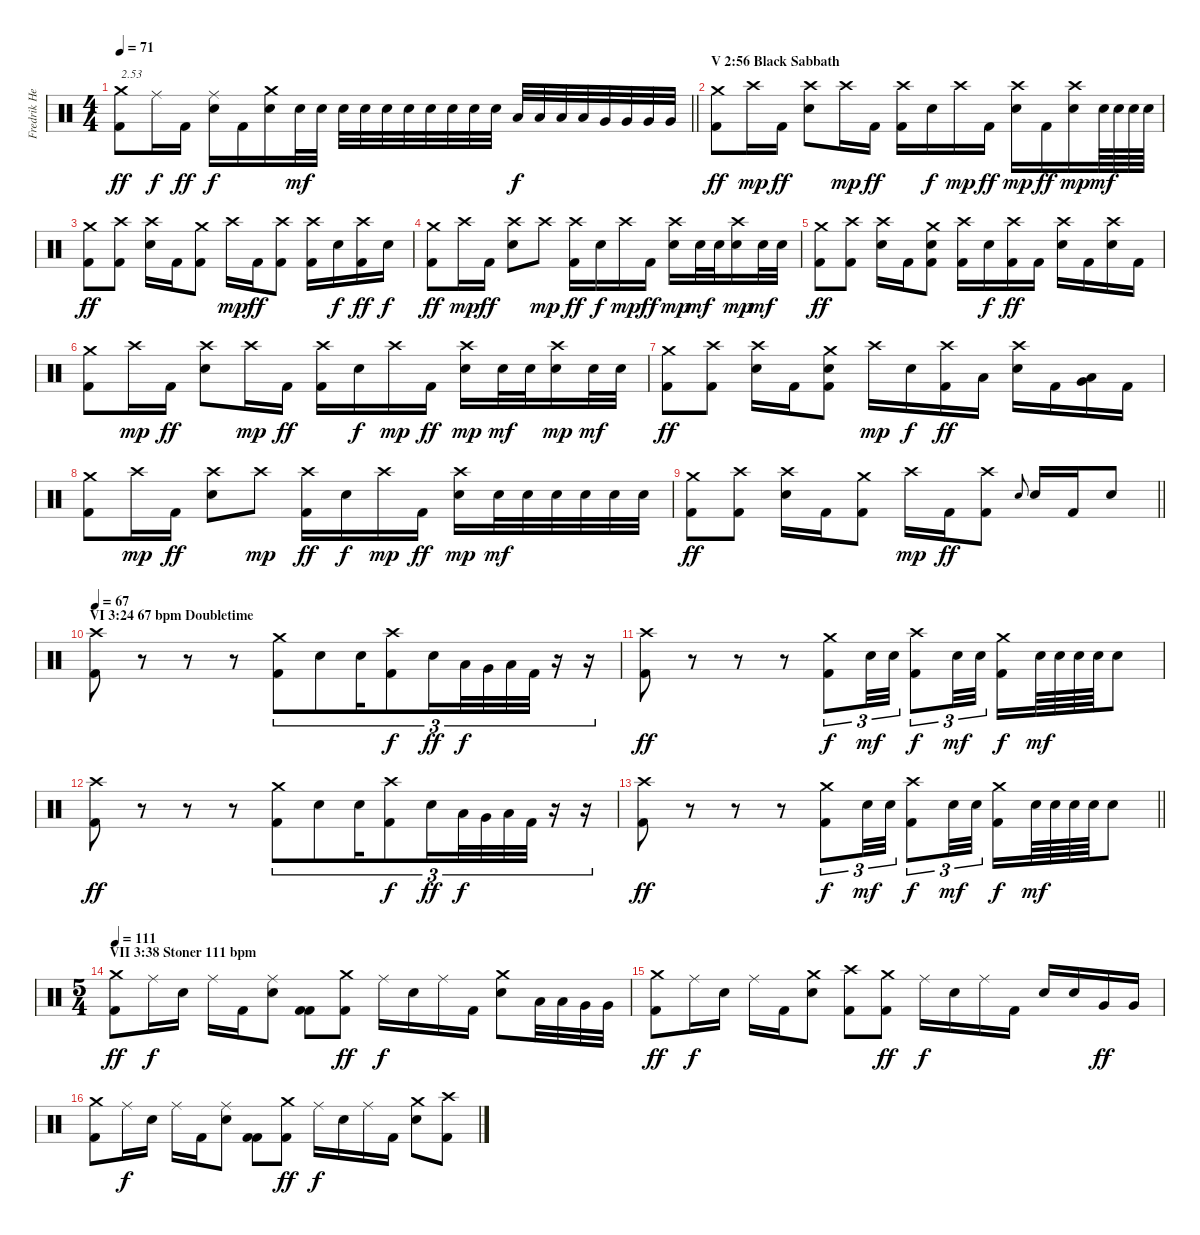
\track ("Fredrik Hellerström (Drums)" "Fredrik He") {instrument percussion}
\staff
\articulation defaults
\ts (4 4)
\tempo 71
\clef neutral
\barLineRight lightlight
\ks c
("Crash medium (hit)" "Kick (hit) 2").8{txt "2.53" dy ff} "Ride (middle)".16{dy f} "Kick (hit) 2".16{dy ff} ("Ride (middle)" "Electric Snare (hit)").16{dy f} "Kick (hit) 2".16 ("Crash medium (hit)" "Electric Snare (hit)").16 "Electric Snare (hit)".32{dy mf} "Electric Snare (hit)".32 "Electric Snare (hit)".32 "Electric Snare (hit)".32 "Electric Snare (hit)".32 "Electric Snare (hit)".32 "Electric Snare (hit)".32 "Electric Snare (hit)".32 "Electric Snare (hit)".32 "Electric Snare (hit)".32 "Low Tom (hit)".32{dy f} "Low Tom (hit)".32 "Low Tom (hit)".32 "Low Tom (hit)".32 "Very Low Tom (hit)".32 "Very Low Tom (hit)".32 "Very Low Tom (hit)".32 "Very Low Tom (hit)".32 |
\section ("" "V 2:56 Black Sabbath")
("Crash medium (hit)" "Kick (hit) 2").8{dy ff} "Crash high (hit)".16{dy mp} "Kick (hit) 2".16{dy ff} ("Crash high (hit)" "Electric Snare (hit)").8 "Crash high (hit)".16{dy mp} "Kick (hit) 2".16{dy ff} ("Crash high (hit)" "Kick (hit) 2").16 "Electric Snare (hit)".16{dy f} "Crash high (hit)".16{dy mp} "Kick (hit) 2".16{dy ff} ("Crash high (hit)" "Electric Snare (hit)").16{dy mp} "Kick (hit) 2".16{dy ff} ("Crash high (hit)" "Electric Snare (hit)").16{dy mp} "Electric Snare (hit)".64{dy mf} "Electric Snare (hit)".64 "Electric Snare (hit)".64 "Electric Snare (hit)".64 |
("Crash medium (hit)" "Kick (hit) 2").8{dy ff} ("Crash high (hit)" "Kick (hit) 2").8 ("Crash high (hit)" "Electric Snare (hit)").16 "Kick (hit) 2".16 ("Crash medium (hit)" "Kick (hit) 2").8 "Crash high (hit)".16{dy mp} "Kick (hit) 2".16{dy ff} ("Crash high (hit)" "Kick (hit) 2").8 ("Crash high (hit)" "Kick (hit) 2").16 "Electric Snare (hit)".16{dy f} ("Crash high (hit)" "Kick (hit) 2").16{dy ff} "Electric Snare (hit)".16{dy f} |
("Crash medium (hit)" "Kick (hit) 2").8{dy ff} "Crash high (hit)".16{dy mp} "Kick (hit) 2".16{dy ff} ("Crash high (hit)" "Electric Snare (hit)").8 "Crash high (hit)".8{dy mp} ("Crash high (hit)" "Kick (hit) 2").16{dy ff} "Electric Snare (hit)".16{dy f} "Crash high (hit)".16{dy mp} "Kick (hit) 2".16{dy ff} ("Crash high (hit)" "Electric Snare (hit)").16{dy mp} "Electric Snare (hit)".32{dy mf} "Electric Snare (hit)".32 ("Crash high (hit)" "Electric Snare (hit)").16{dy mp} "Electric Snare (hit)".32{dy mf} "Electric Snare (hit)".32 |
("Crash medium (hit)" "Kick (hit) 2").8{dy ff} ("Crash high (hit)" "Kick (hit) 2").8 ("Crash high (hit)" "Electric Snare (hit)").16 "Kick (hit) 2".16 ("Crash medium (hit)" "Electric Snare (hit)" "Kick (hit) 2").8 ("Crash high (hit)" "Kick (hit) 2").16 "Electric Snare (hit)".16{dy f} ("Crash high (hit)" "Kick (hit) 2").16{dy ff} "Kick (hit) 2".16 ("Crash high (hit)" "Electric Snare (hit)").16 "Kick (hit) 2".16 ("Crash high (hit)" "Electric Snare (hit)").16 "Kick (hit) 2".16 |
("Crash medium (hit)" "Kick (hit) 2").8 "Crash high (hit)".16{dy mp} "Kick (hit) 2".16{dy ff} ("Crash high (hit)" "Electric Snare (hit)").8 "Crash high (hit)".16{dy mp} "Kick (hit) 2".16{dy ff} ("Crash high (hit)" "Kick (hit) 2").16 "Electric Snare (hit)".16{dy f} "Crash high (hit)".16{dy mp} "Kick (hit) 2".16{dy ff} ("Crash high (hit)" "Electric Snare (hit)").16{dy mp} "Electric Snare (hit)".32{dy mf} "Electric Snare (hit)".32 ("Crash high (hit)" "Electric Snare (hit)").16{dy mp} "Electric Snare (hit)".32{dy mf} "Electric Snare (hit)".32 |
("Crash medium (hit)" "Kick (hit) 2").8{dy ff} ("Crash high (hit)" "Kick (hit) 2").8 ("Crash high (hit)" "Electric Snare (hit)").16 "Kick (hit) 2".16 ("Crash medium (hit)" "Electric Snare (hit)" "Kick (hit) 2").8 "Crash high (hit)".16{dy mp} "Electric Snare (hit)".16{dy f} ("Crash high (hit)" "Kick (hit) 2").16{dy ff} "Low Tom (hit)".16 ("Crash high (hit)" "Electric Snare (hit)").16 "Kick (hit) 2".16 ("Low Floor Tom (hit)" "Very Low Tom (hit)").16 "Kick (hit) 2".16 |
("Crash medium (hit)" "Kick (hit) 2").8 "Crash high (hit)".16{dy mp} "Kick (hit) 2".16{dy ff} ("Crash high (hit)" "Electric Snare (hit)").8 "Crash high (hit)".8{dy mp} ("Crash high (hit)" "Kick (hit) 2").16{dy ff} "Electric Snare (hit)".16{dy f} "Crash high (hit)".16{dy mp} "Kick (hit) 2".16{dy ff} ("Crash high (hit)" "Electric Snare (hit)").16{dy mp} "Electric Snare (hit)".32{dy mf} "Electric Snare (hit)".32 "Electric Snare (hit)".32 "Electric Snare (hit)".32 "Electric Snare (hit)".32 "Electric Snare (hit)".32 |
\barLineRight lightlight
("Crash medium (hit)" "Kick (hit) 2").8{dy ff} ("Crash high (hit)" "Kick (hit) 2").8 ("Crash high (hit)" "Electric Snare (hit)").16 "Kick (hit) 2".16 ("Crash medium (hit)" "Kick (hit) 2").8 "Crash high (hit)".16{dy mp} "Kick (hit) 2".16{dy ff} ("Crash high (hit)" "Kick (hit) 2").8 "Electric Snare (hit)".8{gr onbeat} "Electric Snare (hit)".16 "Kick (hit) 2".16 "Electric Snare (hit)".8 |
\section ("" "VI 3:24 67 bpm Doubletime")
\tempo 67
("Crash high (hit)" "Kick (hit) 2").8 r.8 r.8 r.8 ("Crash medium (hit)" "Kick (hit) 2").8{tu (3 2)} "Electric Snare (hit)".8{tu (3 2)} "Electric Snare (hit)".16{tu (3 2)} ("Crash high (hit)" "Kick (hit) 2").8{tu (3 2) dy f} "Electric Snare (hit)".16{tu (3 2) dy ff} "Low Tom (hit)".32{tu (3 2) dy f} "Very Low Tom (hit)".32{tu (3 2)} "Low Floor Tom (hit)".32{tu (3 2)} "Kick (hit) 2".32{tu (3 2)} r.16{tu (3 2)} r.16{tu (3 2)} |
("Crash high (hit)" "Kick (hit) 2").8{dy ff} r.8 r.8 r.8 ("Crash medium (hit)" "Kick (hit) 2").8{tu (3 2) dy f} "Electric Snare (hit)".32{tu (3 2) dy mf} "Electric Snare (hit)".32{tu (3 2)} ("Crash high (hit)" "Kick (hit) 2").8{tu (3 2) dy f} "Electric Snare (hit)".32{tu (3 2) dy mf} "Electric Snare (hit)".32{tu (3 2)} ("Crash medium (hit)" "Kick (hit) 2").16{dy f} "Electric Snare (hit)".64{dy mf} "Electric Snare (hit)".64 "Electric Snare (hit)".64 "Electric Snare (hit)".64 "Electric Snare (hit)".8 |
("Crash high (hit)" "Kick (hit) 2").8{dy ff} r.8 r.8 r.8 ("Crash medium (hit)" "Kick (hit) 2").8{tu (3 2)} "Electric Snare (hit)".8{tu (3 2)} "Electric Snare (hit)".16{tu (3 2)} ("Crash high (hit)" "Kick (hit) 2").8{tu (3 2) dy f} "Electric Snare (hit)".16{tu (3 2) dy ff} "Low Tom (hit)".32{tu (3 2) dy f} "Very Low Tom (hit)".32{tu (3 2)} "Low Floor Tom (hit)".32{tu (3 2)} "Kick (hit) 2".32{tu (3 2)} r.16{tu (3 2)} r.16{tu (3 2)} |
\barLineRight lightlight
("Crash high (hit)" "Kick (hit) 2").8{dy ff} r.8 r.8 r.8 ("Crash medium (hit)" "Kick (hit) 2").8{tu (3 2) dy f} "Electric Snare (hit)".32{tu (3 2) dy mf} "Electric Snare (hit)".32{tu (3 2)} ("Crash high (hit)" "Kick (hit) 2").8{tu (3 2) dy f} "Electric Snare (hit)".32{tu (3 2) dy mf} "Electric Snare (hit)".32{tu (3 2)} ("Crash medium (hit)" "Kick (hit) 2").16{dy f} "Electric Snare (hit)".64{dy mf} "Electric Snare (hit)".64 "Electric Snare (hit)".64 "Electric Snare (hit)".64 "Electric Snare (hit)".8 |
\ts (5 4)
\section ("" "VII 3:38 Stoner 111 bpm")
\tempo 111
("Crash medium (hit)" "Kick (hit) 2").8{dy ff} "Ride (middle)".16{dy f} "Electric Snare (hit)".16 "Ride (middle)".16 "Kick (hit) 2".16 ("Ride (middle)" "Electric Snare (hit)").8 ("Kick (hit) 2" "Kick (hit) 2").8 ("Crash medium (hit)" "Kick (hit) 2").8{dy ff} "Ride (middle)".16{dy f} "Electric Snare (hit)".16 "Ride (middle)".16 "Kick (hit) 2".16 ("Crash medium (hit)" "Electric Snare (hit)").8 "Low Tom (hit)".32 "Low Tom (hit)".32 "Very Low Tom (hit)".32 "Very Low Tom (hit)".32 |
("Crash medium (hit)" "Kick (hit) 2").8{dy ff} "Ride (middle)".16{dy f} "Electric Snare (hit)".16 "Ride (middle)".16 "Kick (hit) 2".16 ("Crash medium (hit)" "Electric Snare (hit)").8 ("Crash high (hit)" "Kick (hit) 2").8 ("Crash medium (hit)" "Kick (hit) 2").8{dy ff} "Ride (middle)".16{dy f} "Electric Snare (hit)".16 "Ride (middle)".16 "Kick (hit) 2".16 "Electric Snare (hit)".16 "Electric Snare (hit)".16 "Very Low Tom (hit)".16{dy ff} "Very Low Tom (hit)".16 |
("Crash medium (hit)" "Kick (hit) 2").8 "Ride (middle)".16{dy f} "Electric Snare (hit)".16 "Ride (middle)".16 "Kick (hit) 2".16 ("Ride (middle)" "Electric Snare (hit)").8 ("Kick (hit) 2" "Kick (hit) 2").8 ("Crash medium (hit)" "Kick (hit) 2").8{dy ff} "Ride (middle)".16{dy f} "Electric Snare (hit)".16 "Ride (middle)".16 "Kick (hit) 2".16 ("Crash medium (hit)" "Electric Snare (hit)").8 ("Crash high (hit)" "Kick (hit) 2").8
